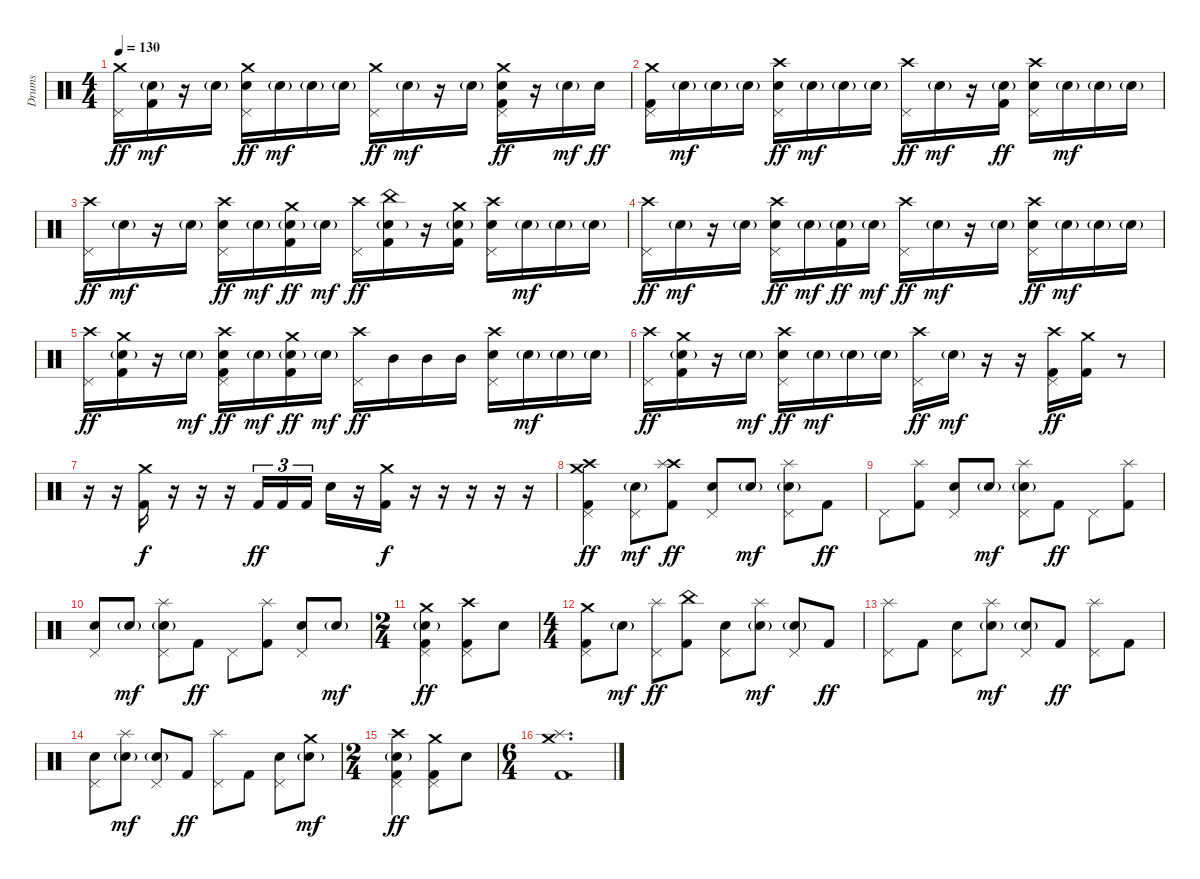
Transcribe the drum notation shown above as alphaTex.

\track ("Drums" "Drums") {instrument percussion}
\staff {score}
\articulation defaults
\ts (4 4)
\tempo 130
\clef neutral
\ks c
("Crash medium (hit)" "Pedal Hi-Hat (hit)").16{dy ff} ("Electric Snare (hit)"{g} "Kick (hit) 2").16{dy mf} r.16 "Electric Snare (hit)"{g}.16 ("Crash medium (hit)" "Pedal Hi-Hat (hit)" "Electric Snare (hit)").16{dy ff} "Electric Snare (hit)"{g}.16{dy mf} "Electric Snare (hit)"{g}.16 "Electric Snare (hit)"{g}.16 ("Crash medium (hit)" "Pedal Hi-Hat (hit)").16{dy ff} "Electric Snare (hit)"{g}.16{dy mf} r.16 "Electric Snare (hit)"{g}.16 ("Crash medium (hit)" "Pedal Hi-Hat (hit)" "Electric Snare (hit)" "Kick (hit) 2").16{dy ff} r.16 "Electric Snare (hit)"{g}.16{dy mf} "Electric Snare (hit)".16{dy ff} |
("Crash medium (hit)" "Pedal Hi-Hat (hit)" "Kick (hit) 2").16 "Electric Snare (hit)"{g}.16{dy mf} "Electric Snare (hit)"{g}.16 "Electric Snare (hit)"{g}.16 ("Crash high (hit)" "Pedal Hi-Hat (hit)" "Electric Snare (hit)").16{dy ff} "Electric Snare (hit)"{g}.16{dy mf} "Electric Snare (hit)"{g}.16 "Electric Snare (hit)"{g}.16 ("Crash high (hit)" "Pedal Hi-Hat (hit)").16{dy ff} "Electric Snare (hit)"{g}.16{dy mf} r.16 ("Electric Snare (hit)"{g} "Kick (hit) 2").16{dy ff} ("Crash high (hit)" "Pedal Hi-Hat (hit)" "Electric Snare (hit)").16 "Electric Snare (hit)"{g}.16{dy mf} "Electric Snare (hit)"{g}.16 "Electric Snare (hit)"{g}.16 |
("Crash high (hit)" "Pedal Hi-Hat (hit)").16{dy ff} "Electric Snare (hit)"{g}.16{dy mf} r.16 "Electric Snare (hit)"{g}.16 ("Crash high (hit)" "Pedal Hi-Hat (hit)" "Electric Snare (hit)").16{dy ff} "Electric Snare (hit)"{g}.16{dy mf} ("Crash medium (hit)" "Electric Snare (hit)"{g} "Kick (hit) 2").16{dy ff} "Electric Snare (hit)"{g}.16{dy mf} ("Crash high (hit)" "Pedal Hi-Hat (hit)").16{dy ff} ("China (hit)" "Electric Snare (hit)"{g} "Kick (hit) 2").16 r.16 ("Crash medium (hit)" "Electric Snare (hit)"{g} "Kick (hit) 2").16 ("Crash high (hit)" "Pedal Hi-Hat (hit)" "Electric Snare (hit)").16 "Electric Snare (hit)"{g}.16{dy mf} "Electric Snare (hit)"{g}.16 "Electric Snare (hit)"{g}.16 |
("Crash high (hit)" "Pedal Hi-Hat (hit)").16{dy ff} "Electric Snare (hit)"{g}.16{dy mf} r.16 "Electric Snare (hit)"{g}.16 ("Crash high (hit)" "Pedal Hi-Hat (hit)" "Electric Snare (hit)").16{dy ff} "Electric Snare (hit)"{g}.16{dy mf} ("Electric Snare (hit)"{g} "Kick (hit) 2").16{dy ff} "Electric Snare (hit)"{g}.16{dy mf} ("Crash high (hit)" "Pedal Hi-Hat (hit)").16{dy ff} "Electric Snare (hit)"{g}.16{dy mf} r.16 "Electric Snare (hit)"{g}.16 ("Crash high (hit)" "Pedal Hi-Hat (hit)" "Electric Snare (hit)").16{dy ff} "Electric Snare (hit)"{g}.16{dy mf} "Electric Snare (hit)"{g}.16 "Electric Snare (hit)"{g}.16 |
("Crash high (hit)" "Pedal Hi-Hat (hit)").16{dy ff} ("Crash medium (hit)" "Electric Snare (hit)"{g} "Kick (hit) 2").16 r.16 "Electric Snare (hit)"{g}.16{dy mf} ("Crash high (hit)" "Pedal Hi-Hat (hit)" "Electric Snare (hit)" "Kick (hit) 2").16{dy ff} "Electric Snare (hit)"{g}.16{dy mf} ("Crash medium (hit)" "Electric Snare (hit)"{g} "Kick (hit) 2").16{dy ff} "Electric Snare (hit)"{g}.16{dy mf} ("Crash high (hit)" "Pedal Hi-Hat (hit)").16{dy ff} "Mid Tom (hit)".16 "Mid Tom (hit)".16 "Mid Tom (hit)".16 ("Crash high (hit)" "Pedal Hi-Hat (hit)" "Electric Snare (hit)").16 "Electric Snare (hit)"{g}.16{dy mf} "Electric Snare (hit)"{g}.16 "Electric Snare (hit)"{g}.16 |
("Crash high (hit)" "Pedal Hi-Hat (hit)").16{dy ff} ("Crash medium (hit)" "Electric Snare (hit)"{g} "Kick (hit) 2").16 r.16 "Electric Snare (hit)"{g}.16{dy mf} ("Crash high (hit)" "Pedal Hi-Hat (hit)" "Electric Snare (hit)").16{dy ff} "Electric Snare (hit)"{g}.16{dy mf} "Electric Snare (hit)"{g}.16 "Electric Snare (hit)"{g}.16 ("Crash high (hit)" "Pedal Hi-Hat (hit)").16{dy ff} "Electric Snare (hit)"{g}.16{dy mf} r.16 r.16 ("Crash high (hit)" "Pedal Hi-Hat (hit)" "Kick (hit) 2").16{dy ff} ("Crash medium (hit)" "Kick (hit) 2").16 r.8 |
r.16 r.16 ("Crash medium (hit)" "Kick (hit) 2").16{dy f} r.16 r.16 r.16 "Kick (hit) 2".16{tu (3 2) dy ff} "Kick (hit) 2".16{tu (3 2)} "Kick (hit) 2".16{tu (3 2)} "Electric Snare (hit)".16 r.16 ("Crash medium (hit)" "Kick (hit) 2").16{dy f} r.16 r.16 r.16 r.16 r.16 |
("Crash medium (hit)" "Crash high (hit)" "Pedal Hi-Hat (hit)" "Kick (hit) 2").4{dy ff} ("Pedal Hi-Hat (hit)" "Electric Snare (hit)"{g}).8{dy mf} ("Crash high (hit)" "Splash (hit)" "Kick (hit) 2").8{dy ff} ("Pedal Hi-Hat (hit)" "Electric Snare (hit)").8 "Electric Snare (hit)"{g}.8{dy mf} ("Splash (hit)" "Pedal Hi-Hat (hit)" "Electric Snare (hit)"{g}).8 "Kick (hit) 2".8{dy ff} |
"Pedal Hi-Hat (hit)".8 ("Splash (hit)" "Kick (hit) 2").8 ("Pedal Hi-Hat (hit)" "Electric Snare (hit)").8 "Electric Snare (hit)"{g}.8{dy mf} ("Splash (hit)" "Pedal Hi-Hat (hit)" "Electric Snare (hit)"{g}).8 "Kick (hit) 2".8{dy ff} "Pedal Hi-Hat (hit)".8 ("Splash (hit)" "Kick (hit) 2").8 |
("Pedal Hi-Hat (hit)" "Electric Snare (hit)").8 "Electric Snare (hit)"{g}.8{dy mf} ("Splash (hit)" "Pedal Hi-Hat (hit)" "Electric Snare (hit)"{g}).8 "Kick (hit) 2".8{dy ff} "Pedal Hi-Hat (hit)".8 ("Splash (hit)" "Kick (hit) 2").8 ("Pedal Hi-Hat (hit)" "Electric Snare (hit)").8 "Electric Snare (hit)"{g}.8{dy mf} |
\ts (2 4)
("Crash medium (hit)" "Pedal Hi-Hat (hit)" "Electric Snare (hit)"{g} "Kick (hit) 2").4{dy ff} ("Crash high (hit)" "Pedal Hi-Hat (hit)" "Kick (hit) 2").8 "Electric Snare (hit)".8 |
\ts (4 4)
("Crash medium (hit)" "Pedal Hi-Hat (hit)" "Kick (hit) 2").8 "Electric Snare (hit)"{g}.8{dy mf} ("Splash (hit)" "Pedal Hi-Hat (hit)").8{dy ff} ("China (hit)" "Kick (hit) 2").8 ("Pedal Hi-Hat (hit)" "Electric Snare (hit)").8 ("Splash (hit)" "Electric Snare (hit)"{g}).8{dy mf} ("Pedal Hi-Hat (hit)" "Electric Snare (hit)"{g}).8 "Kick (hit) 2".8{dy ff} |
("Splash (hit)" "Pedal Hi-Hat (hit)").8 "Kick (hit) 2".8 ("Pedal Hi-Hat (hit)" "Electric Snare (hit)").8 ("Splash (hit)" "Electric Snare (hit)"{g}).8{dy mf} ("Pedal Hi-Hat (hit)" "Electric Snare (hit)"{g}).8 "Kick (hit) 2".8{dy ff} ("Splash (hit)" "Pedal Hi-Hat (hit)").8 "Kick (hit) 2".8 |
("Pedal Hi-Hat (hit)" "Electric Snare (hit)").8 ("Splash (hit)" "Electric Snare (hit)"{g}).8{dy mf} ("Pedal Hi-Hat (hit)" "Electric Snare (hit)"{g}).8 "Kick (hit) 2".8{dy ff} ("Splash (hit)" "Pedal Hi-Hat (hit)").8 "Kick (hit) 2".8 ("Pedal Hi-Hat (hit)" "Electric Snare (hit)").8 ("Crash medium (hit)" "Electric Snare (hit)"{g}).8{dy mf} |
\ts (2 4)
("Crash high (hit)" "Pedal Hi-Hat (hit)" "Electric Snare (hit)"{g} "Kick (hit) 2").4{dy ff} ("Crash medium (hit)" "Pedal Hi-Hat (hit)" "Kick (hit) 2").8 "Electric Snare (hit)".8 |
\ts (6 4)
("Crash medium (hit)" "Splash (hit)" "Kick (hit) 2").1{d}
